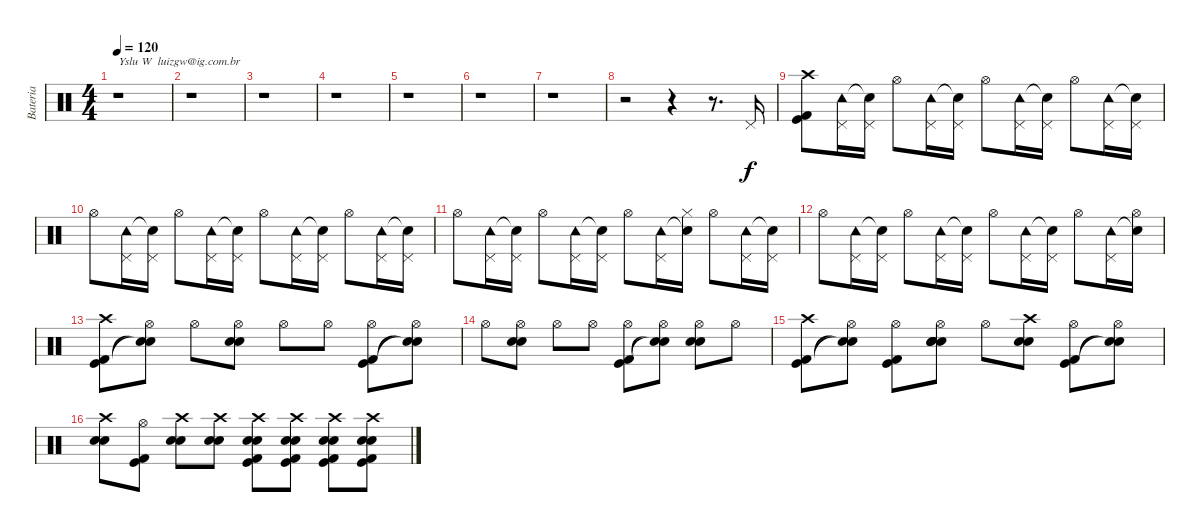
\track ("Bateria" "Bateria") {instrument percussion}
\staff {score}
\articulation defaults
\ts (4 4)
\tempo 120
\clef neutral
\ks c
r.1{txt "Yslu W  luizgw@ig.com.br" dy f} |
r.1 |
r.1 |
r.1 |
r.1 |
r.1 |
r.1 |
r.2 r.4 r.8{d} "Pedal Hi-Hat (hit)".16 |
("Crash high (hit)" "Kick (hit)" "Kick (hit) 2").8 ("Pedal Hi-Hat (hit)" "Tambourine (hit)").16 ("Pedal Hi-Hat (hit)" "Snare (hit)"{t}).16 "Hi-Hat (open)".8 ("Pedal Hi-Hat (hit)" "Tambourine (hit)").16 ("Pedal Hi-Hat (hit)" "Snare (hit)"{t}).16 "Hi-Hat (open)".8 ("Pedal Hi-Hat (hit)" "Tambourine (hit)").16 ("Pedal Hi-Hat (hit)" "Snare (hit)"{t}).16 "Hi-Hat (open)".8 ("Pedal Hi-Hat (hit)" "Tambourine (hit)").16 ("Pedal Hi-Hat (hit)" "Snare (hit)"{t}).16 |
"Hi-Hat (open)".8 ("Pedal Hi-Hat (hit)" "Tambourine (hit)").16 ("Pedal Hi-Hat (hit)" "Snare (hit)"{t}).16 "Hi-Hat (open)".8 ("Pedal Hi-Hat (hit)" "Tambourine (hit)").16 ("Pedal Hi-Hat (hit)" "Snare (hit)"{t}).16 "Hi-Hat (open)".8 ("Pedal Hi-Hat (hit)" "Tambourine (hit)").16 ("Pedal Hi-Hat (hit)" "Snare (hit)"{t}).16 "Hi-Hat (open)".8 ("Pedal Hi-Hat (hit)" "Tambourine (hit)").16 ("Pedal Hi-Hat (hit)" "Snare (hit)"{t}).16 |
"Hi-Hat (open)".8 ("Pedal Hi-Hat (hit)" "Tambourine (hit)").16 ("Pedal Hi-Hat (hit)" "Snare (hit)"{t}).16 "Hi-Hat (open)".8 ("Pedal Hi-Hat (hit)" "Tambourine (hit)").16 ("Pedal Hi-Hat (hit)" "Snare (hit)"{t}).16 "Hi-Hat (open)".8 ("Pedal Hi-Hat (hit)" "Tambourine (hit)").16 ("Hi-Hat (closed)" "Snare (hit)"{t}).16 "Hi-Hat (open)".8 ("Pedal Hi-Hat (hit)" "Tambourine (hit)").16 ("Pedal Hi-Hat (hit)" "Snare (hit)"{t}).16 |
"Hi-Hat (open)".8 ("Pedal Hi-Hat (hit)" "Tambourine (hit)").16 ("Pedal Hi-Hat (hit)" "Snare (hit)"{t}).16 "Hi-Hat (open)".8 ("Pedal Hi-Hat (hit)" "Tambourine (hit)").16 ("Pedal Hi-Hat (hit)" "Snare (hit)"{t}).16 "Hi-Hat (open)".8 ("Pedal Hi-Hat (hit)" "Tambourine (hit)").16 ("Pedal Hi-Hat (hit)" "Snare (hit)"{t}).16 "Hi-Hat (open)".8 ("Pedal Hi-Hat (hit)" "Tambourine (hit)").16 ("Hi-Hat (open)" "Snare (hit)"{t}).16 |
("Crash high (hit)" "Kick (hit) 2" "Kick (hit)").8 ("Hi-Hat (open)" "Snare (hit)"{t} "Snare (hit)"{t}).8 "Hi-Hat (open)".8 ("Hi-Hat (open)" "Electric Snare (hit)" "Snare (hit) 2").8 "Hi-Hat (open)".8 "Hi-Hat (open)".8 ("Hi-Hat (open)" "Kick (hit)" "Kick (hit) 2").8 ("Hi-Hat (open)" "Snare (hit)"{t} "Snare (hit)"{t}).8 |
"Hi-Hat (open)".8 ("Hi-Hat (open)" "Electric Snare (hit)" "Snare (hit) 2").8 "Hi-Hat (open)".8 "Hi-Hat (open)".8 ("Hi-Hat (open)" "Kick (hit)" "Kick (hit) 2").8 ("Hi-Hat (open)" "Snare (hit)"{t} "Snare (hit)"{t}).8 ("Hi-Hat (open)" "Electric Snare (hit)" "Snare (hit) 2").8 "Hi-Hat (open)".8 |
("Crash high (hit)" "Kick (hit)" "Kick (hit) 2").8 ("Hi-Hat (open)" "Snare (hit)"{t} "Snare (hit)"{t}).8 ("Hi-Hat (open)" "Kick (hit)" "Kick (hit) 2").8 ("Hi-Hat (open)" "Electric Snare (hit)" "Snare (hit) 2" "Snare (hit)" "Snare (hit)").8 "Hi-Hat (open)".8 ("Crash high (hit)" "Electric Snare (hit)" "Snare (hit) 2").8 ("Hi-Hat (open)" "Kick (hit)" "Kick (hit) 2").8 ("Hi-Hat (open)" "Snare (hit)"{t} "Snare (hit)"{t}).8 |
("Crash high (hit)" "Electric Snare (hit)" "Snare (hit) 2").8 ("Hi-Hat (open)" "Kick (hit)" "Kick (hit) 2").8 ("Crash high (hit)" "Electric Snare (hit)" "Snare (hit) 2").8 ("Crash high (hit)" "Electric Snare (hit)" "Snare (hit) 2").8 ("Crash high (hit)" "Electric Snare (hit)" "Snare (hit) 2" "Kick (hit)" "Kick (hit) 2").8 ("Crash high (hit)" "Electric Snare (hit)" "Snare (hit) 2" "Kick (hit)" "Kick (hit) 2").8 ("Crash high (hit)" "Electric Snare (hit)" "Snare (hit) 2" "Kick (hit)" "Kick (hit) 2").8 ("Crash high (hit)" "Electric Snare (hit)" "Snare (hit) 2" "Kick (hit)" "Kick (hit) 2").8
